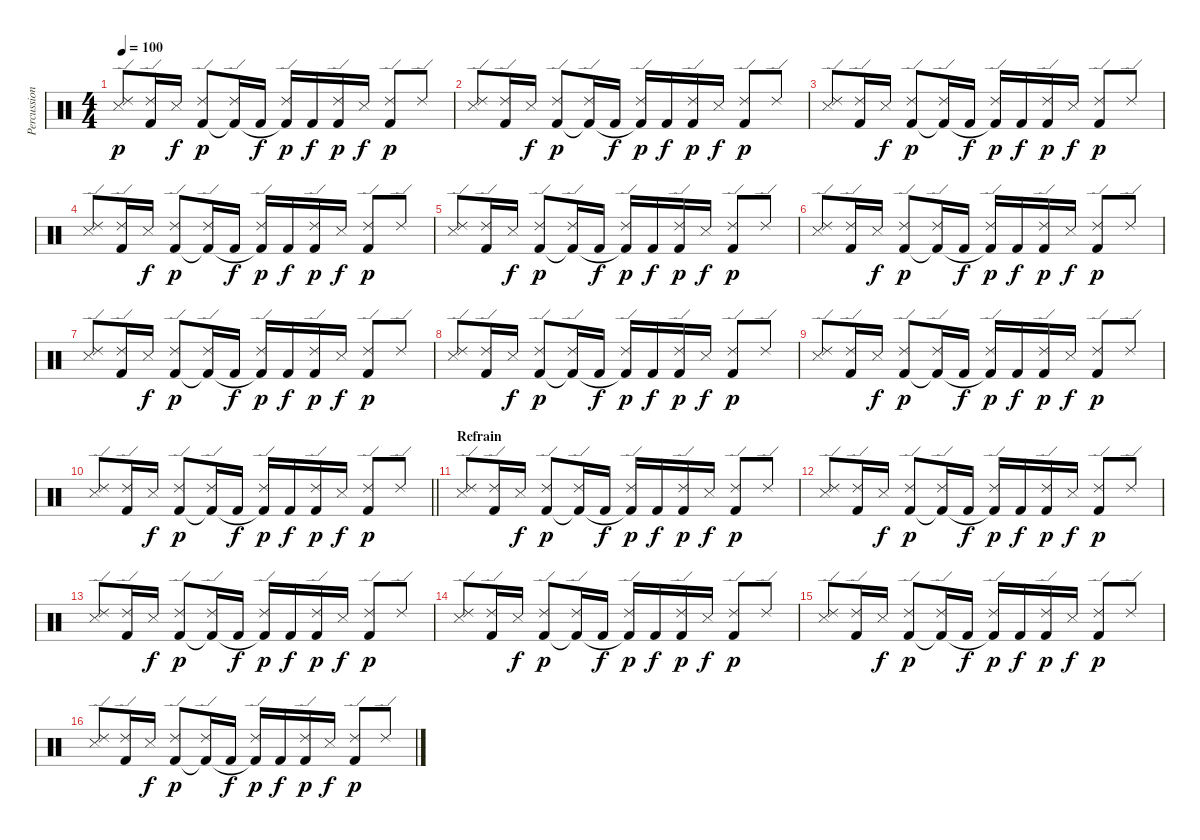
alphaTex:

\track ("Percussion" "Percussion") {instrument percussion}
\staff {score}
\articulation defaults
\ts (4 4)
\tempo 100
\clef neutral
\ks c
("Ride (edge) 2" "Snare (side stick) 3").8{dy p} ("Ride (edge) 2" "Kick (hit) 2").16 "Snare (side stick) 3".16{dy f} ("Ride (edge) 2" "Kick (hit) 2").8{dy p} ("Ride (edge) 2" "Kick (hit) 2"{t}).16 "Kick (hit) 2".16{dy f} ("Ride (edge) 2" "Kick (hit) 2"{t}).16{dy p} "Kick (hit) 2".16{dy f} ("Ride (edge) 2" "Kick (hit) 2").16{dy p} "Snare (side stick) 3".16{dy f} ("Ride (edge) 2" "Kick (hit) 2").8{dy p} "Ride (edge) 2".8 |
("Ride (edge) 2" "Snare (side stick) 3").8 ("Ride (edge) 2" "Kick (hit) 2").16 "Snare (side stick) 3".16{dy f} ("Ride (edge) 2" "Kick (hit) 2").8{dy p} ("Ride (edge) 2" "Kick (hit) 2"{t}).16 "Kick (hit) 2".16{dy f} ("Ride (edge) 2" "Kick (hit) 2"{t}).16{dy p} "Kick (hit) 2".16{dy f} ("Ride (edge) 2" "Kick (hit) 2").16{dy p} "Snare (side stick) 3".16{dy f} ("Ride (edge) 2" "Kick (hit) 2").8{dy p} "Ride (edge) 2".8 |
("Ride (edge) 2" "Snare (side stick) 3").8 ("Ride (edge) 2" "Kick (hit) 2").16 "Snare (side stick) 3".16{dy f} ("Ride (edge) 2" "Kick (hit) 2").8{dy p} ("Ride (edge) 2" "Kick (hit) 2"{t}).16 "Kick (hit) 2".16{dy f} ("Ride (edge) 2" "Kick (hit) 2"{t}).16{dy p} "Kick (hit) 2".16{dy f} ("Ride (edge) 2" "Kick (hit) 2").16{dy p} "Snare (side stick) 3".16{dy f} ("Ride (edge) 2" "Kick (hit) 2").8{dy p} "Ride (edge) 2".8 |
("Ride (edge) 2" "Snare (side stick) 3").8 ("Ride (edge) 2" "Kick (hit) 2").16 "Snare (side stick) 3".16{dy f} ("Ride (edge) 2" "Kick (hit) 2").8{dy p} ("Ride (edge) 2" "Kick (hit) 2"{t}).16 "Kick (hit) 2".16{dy f} ("Ride (edge) 2" "Kick (hit) 2"{t}).16{dy p} "Kick (hit) 2".16{dy f} ("Ride (edge) 2" "Kick (hit) 2").16{dy p} "Snare (side stick) 3".16{dy f} ("Ride (edge) 2" "Kick (hit) 2").8{dy p} "Ride (edge) 2".8 |
("Ride (edge) 2" "Snare (side stick) 3").8 ("Ride (edge) 2" "Kick (hit) 2").16 "Snare (side stick) 3".16{dy f} ("Ride (edge) 2" "Kick (hit) 2").8{dy p} ("Ride (edge) 2" "Kick (hit) 2"{t}).16 "Kick (hit) 2".16{dy f} ("Ride (edge) 2" "Kick (hit) 2"{t}).16{dy p} "Kick (hit) 2".16{dy f} ("Ride (edge) 2" "Kick (hit) 2").16{dy p} "Snare (side stick) 3".16{dy f} ("Ride (edge) 2" "Kick (hit) 2").8{dy p} "Ride (edge) 2".8 |
("Ride (edge) 2" "Snare (side stick) 3").8 ("Ride (edge) 2" "Kick (hit) 2").16 "Snare (side stick) 3".16{dy f} ("Ride (edge) 2" "Kick (hit) 2").8{dy p} ("Ride (edge) 2" "Kick (hit) 2"{t}).16 "Kick (hit) 2".16{dy f} ("Ride (edge) 2" "Kick (hit) 2"{t}).16{dy p} "Kick (hit) 2".16{dy f} ("Ride (edge) 2" "Kick (hit) 2").16{dy p} "Snare (side stick) 3".16{dy f} ("Ride (edge) 2" "Kick (hit) 2").8{dy p} "Ride (edge) 2".8 |
("Ride (edge) 2" "Snare (side stick) 3").8 ("Ride (edge) 2" "Kick (hit) 2").16 "Snare (side stick) 3".16{dy f} ("Ride (edge) 2" "Kick (hit) 2").8{dy p} ("Ride (edge) 2" "Kick (hit) 2"{t}).16 "Kick (hit) 2".16{dy f} ("Ride (edge) 2" "Kick (hit) 2"{t}).16{dy p} "Kick (hit) 2".16{dy f} ("Ride (edge) 2" "Kick (hit) 2").16{dy p} "Snare (side stick) 3".16{dy f} ("Ride (edge) 2" "Kick (hit) 2").8{dy p} "Ride (edge) 2".8 |
("Ride (edge) 2" "Snare (side stick) 3").8 ("Ride (edge) 2" "Kick (hit) 2").16 "Snare (side stick) 3".16{dy f} ("Ride (edge) 2" "Kick (hit) 2").8{dy p} ("Ride (edge) 2" "Kick (hit) 2"{t}).16 "Kick (hit) 2".16{dy f} ("Ride (edge) 2" "Kick (hit) 2"{t}).16{dy p} "Kick (hit) 2".16{dy f} ("Ride (edge) 2" "Kick (hit) 2").16{dy p} "Snare (side stick) 3".16{dy f} ("Ride (edge) 2" "Kick (hit) 2").8{dy p} "Ride (edge) 2".8 |
("Ride (edge) 2" "Snare (side stick) 3").8 ("Ride (edge) 2" "Kick (hit) 2").16 "Snare (side stick) 3".16{dy f} ("Ride (edge) 2" "Kick (hit) 2").8{dy p} ("Ride (edge) 2" "Kick (hit) 2"{t}).16 "Kick (hit) 2".16{dy f} ("Ride (edge) 2" "Kick (hit) 2"{t}).16{dy p} "Kick (hit) 2".16{dy f} ("Ride (edge) 2" "Kick (hit) 2").16{dy p} "Snare (side stick) 3".16{dy f} ("Ride (edge) 2" "Kick (hit) 2").8{dy p} "Ride (edge) 2".8 |
\barLineRight lightlight
("Ride (edge) 2" "Snare (side stick) 3").8 ("Ride (edge) 2" "Kick (hit) 2").16 "Snare (side stick) 3".16{dy f} ("Ride (edge) 2" "Kick (hit) 2").8{dy p} ("Ride (edge) 2" "Kick (hit) 2"{t}).16 "Kick (hit) 2".16{dy f} ("Ride (edge) 2" "Kick (hit) 2"{t}).16{dy p} "Kick (hit) 2".16{dy f} ("Ride (edge) 2" "Kick (hit) 2").16{dy p} "Snare (side stick) 3".16{dy f} ("Ride (edge) 2" "Kick (hit) 2").8{dy p} "Ride (edge) 2".8 |
\section ("" "Refrain")
("Ride (edge) 2" "Snare (side stick) 3").8 ("Ride (edge) 2" "Kick (hit) 2").16 "Snare (side stick) 3".16{dy f} ("Ride (edge) 2" "Kick (hit) 2").8{dy p} ("Ride (edge) 2" "Kick (hit) 2"{t}).16 "Kick (hit) 2".16{dy f} ("Ride (edge) 2" "Kick (hit) 2"{t}).16{dy p} "Kick (hit) 2".16{dy f} ("Ride (edge) 2" "Kick (hit) 2").16{dy p} "Snare (side stick) 3".16{dy f} ("Ride (edge) 2" "Kick (hit) 2").8{dy p} "Ride (edge) 2".8 |
("Ride (edge) 2" "Snare (side stick) 3").8 ("Ride (edge) 2" "Kick (hit) 2").16 "Snare (side stick) 3".16{dy f} ("Ride (edge) 2" "Kick (hit) 2").8{dy p} ("Ride (edge) 2" "Kick (hit) 2"{t}).16 "Kick (hit) 2".16{dy f} ("Ride (edge) 2" "Kick (hit) 2"{t}).16{dy p} "Kick (hit) 2".16{dy f} ("Ride (edge) 2" "Kick (hit) 2").16{dy p} "Snare (side stick) 3".16{dy f} ("Ride (edge) 2" "Kick (hit) 2").8{dy p} "Ride (edge) 2".8 |
("Ride (edge) 2" "Snare (side stick) 3").8 ("Ride (edge) 2" "Kick (hit) 2").16 "Snare (side stick) 3".16{dy f} ("Ride (edge) 2" "Kick (hit) 2").8{dy p} ("Ride (edge) 2" "Kick (hit) 2"{t}).16 "Kick (hit) 2".16{dy f} ("Ride (edge) 2" "Kick (hit) 2"{t}).16{dy p} "Kick (hit) 2".16{dy f} ("Ride (edge) 2" "Kick (hit) 2").16{dy p} "Snare (side stick) 3".16{dy f} ("Ride (edge) 2" "Kick (hit) 2").8{dy p} "Ride (edge) 2".8 |
("Ride (edge) 2" "Snare (side stick) 3").8 ("Ride (edge) 2" "Kick (hit) 2").16 "Snare (side stick) 3".16{dy f} ("Ride (edge) 2" "Kick (hit) 2").8{dy p} ("Ride (edge) 2" "Kick (hit) 2"{t}).16 "Kick (hit) 2".16{dy f} ("Ride (edge) 2" "Kick (hit) 2"{t}).16{dy p} "Kick (hit) 2".16{dy f} ("Ride (edge) 2" "Kick (hit) 2").16{dy p} "Snare (side stick) 3".16{dy f} ("Ride (edge) 2" "Kick (hit) 2").8{dy p} "Ride (edge) 2".8 |
("Ride (edge) 2" "Snare (side stick) 3").8 ("Ride (edge) 2" "Kick (hit) 2").16 "Snare (side stick) 3".16{dy f} ("Ride (edge) 2" "Kick (hit) 2").8{dy p} ("Ride (edge) 2" "Kick (hit) 2"{t}).16 "Kick (hit) 2".16{dy f} ("Ride (edge) 2" "Kick (hit) 2"{t}).16{dy p} "Kick (hit) 2".16{dy f} ("Ride (edge) 2" "Kick (hit) 2").16{dy p} "Snare (side stick) 3".16{dy f} ("Ride (edge) 2" "Kick (hit) 2").8{dy p} "Ride (edge) 2".8 |
("Ride (edge) 2" "Snare (side stick) 3").8 ("Ride (edge) 2" "Kick (hit) 2").16 "Snare (side stick) 3".16{dy f} ("Ride (edge) 2" "Kick (hit) 2").8{dy p} ("Ride (edge) 2" "Kick (hit) 2"{t}).16 "Kick (hit) 2".16{dy f} ("Ride (edge) 2" "Kick (hit) 2"{t}).16{dy p} "Kick (hit) 2".16{dy f} ("Ride (edge) 2" "Kick (hit) 2").16{dy p} "Snare (side stick) 3".16{dy f} ("Ride (edge) 2" "Kick (hit) 2").8{dy p} "Ride (edge) 2".8
